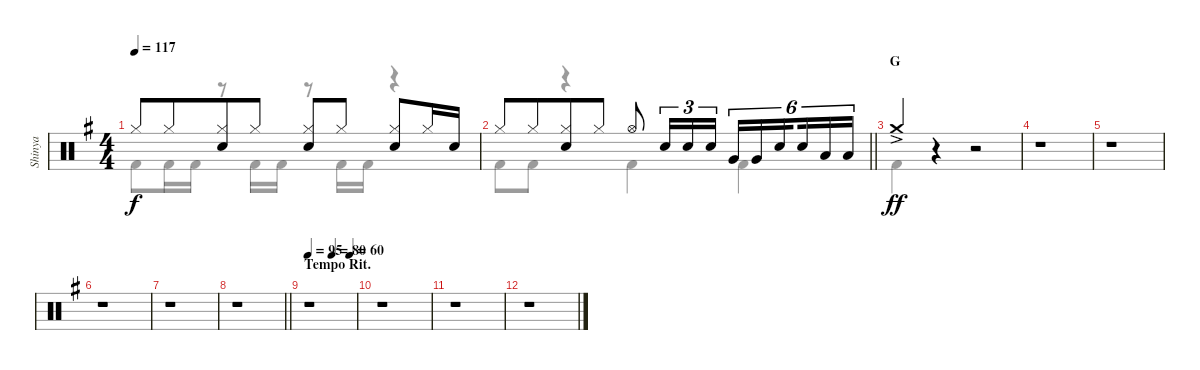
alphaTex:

\track ("Shinya" "Shinya") {instrument percussion}
\staff {score}
\articulation defaults
\voice
\ts (4 4)
\tempo 117
\clef neutral
\ks eminor "Hi-Hat (closed)".8{dy f} "Hi-Hat (closed)".8{beam merge}
("Hi-Hat (closed)" "Snare (hit) 2").8 "Hi-Hat (closed)".8 ("Hi-Hat (closed)" "Snare (hit) 2").8 "Hi-Hat (closed)".8 ("Hi-Hat (closed)" "Snare (hit) 2").8 "Hi-Hat (closed)".16 "Snare (hit) 2".16 |
\barLineRight lightlight "Hi-Hat (closed)".8 "Hi-Hat (closed)".8{beam merge}
("Hi-Hat (closed)" "Snare (hit) 2").8 "Hi-Hat (closed)".8 "Hi-Hat (open)".8 "Snare (hit) 2".16{tu (3 2)} "Snare (hit) 2".16{tu (3 2)} "Snare (hit) 2".16{tu (3 2)} "Very Low Tom (hit)".16{tu (6 4)} "Very Low Tom (hit)".16{tu (6 4)} "Snare (hit) 2".16{tu (6 4) beam splitsecondary} "Snare (hit) 2".16{tu (6 4)} "Low Tom (hit)".16{tu (6 4)} "Low Tom (hit)".16{tu (6 4)} |
\section ("" "G")
"Crash medium (hit)"{ac}.4{dy ff} r.4 r.2 |
r.1 |
r.1 |
r.1 |
r.1 |
\barLineRight lightlight
r.1 |
\section ("" "Tempo Rit.")
\tempo 95
\tempo (80 0.5)
\tempo (60 0.875)
r.1 |
r.1 |
r.1 |
r.1
\voice
\clef neutral
\ottava regular
\simile none
\ks eminor "Kick (hit) 2".8{dy f} "Kick (hit) 2".16 "Kick (hit) 2".16
r.8 "Kick (hit) 2".16 "Kick (hit) 2".16 r.8 "Kick (hit) 2".16 "Kick (hit) 2".16 r.4 |
\barLineRight lightlight "Kick (hit) 2".8 "Kick (hit) 2".8
r.4 "Kick (hit) 2".4 "Kick (hit) 2".4 |
"Kick (hit) 2".4 r.4 r.2 |
r.1 |
r.1 |
r.1 |
r.1 |
\barLineRight lightlight
r.1 |
r.1 |
r.1 |
r.1 |
r.1
